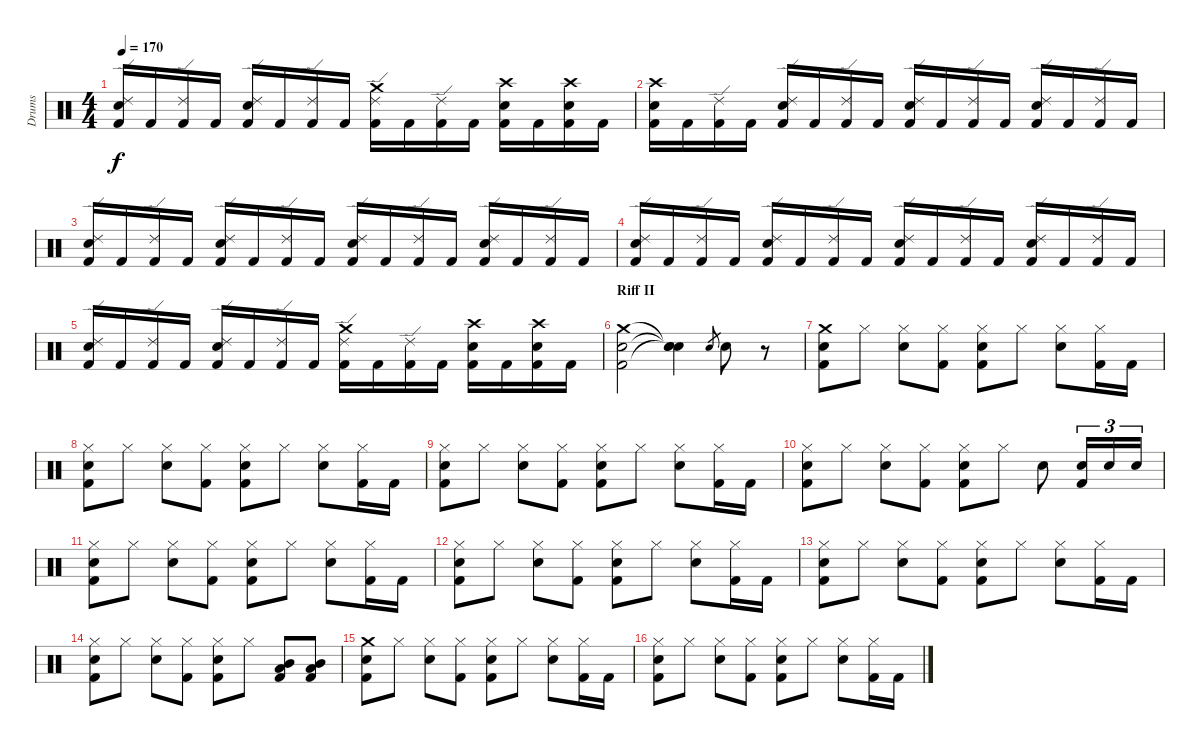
\track ("Drums" "Drums") {instrument percussion}
\staff {score}
\articulation defaults
\ts (4 4)
\tempo 170
\clef neutral
\ks c
("Kick (hit) 2" "Ride (edge) 2" "Snare (hit) 2").16{dy f} "Kick (hit) 2".16 ("Kick (hit) 2" "Ride (edge) 2").16 "Kick (hit) 2".16 ("Kick (hit) 2" "Ride (edge) 2" "Snare (hit) 2").16 "Kick (hit) 2".16 ("Kick (hit) 2" "Ride (edge) 2").16 "Kick (hit) 2".16 ("Kick (hit) 2" "Ride (edge) 2" "Crash medium (hit)").16 "Kick (hit) 2".16 ("Kick (hit) 2" "Ride (edge) 2").16 "Kick (hit) 2".16 ("Kick (hit) 2" "Snare (hit) 2" "Crash high (hit)").16 "Kick (hit) 2".16 ("Kick (hit) 2" "Snare (hit) 2" "Crash high (hit)").16 "Kick (hit) 2".16 |
("Kick (hit) 2" "Snare (hit) 2" "Crash high (hit)").16 "Kick (hit) 2".16 ("Kick (hit) 2" "Ride (edge) 2").16 "Kick (hit) 2".16 ("Kick (hit) 2" "Ride (edge) 2" "Snare (hit) 2").16 "Kick (hit) 2".16 ("Kick (hit) 2" "Ride (edge) 2").16 "Kick (hit) 2".16 ("Kick (hit) 2" "Ride (edge) 2" "Snare (hit) 2").16 "Kick (hit) 2".16 ("Kick (hit) 2" "Ride (edge) 2").16 "Kick (hit) 2".16 ("Kick (hit) 2" "Ride (edge) 2" "Snare (hit) 2").16 "Kick (hit) 2".16 ("Kick (hit) 2" "Ride (edge) 2").16 "Kick (hit) 2".16 |
("Kick (hit) 2" "Ride (edge) 2" "Snare (hit) 2").16 "Kick (hit) 2".16 ("Kick (hit) 2" "Ride (edge) 2").16 "Kick (hit) 2".16 ("Kick (hit) 2" "Ride (edge) 2" "Snare (hit) 2").16 "Kick (hit) 2".16 ("Kick (hit) 2" "Ride (edge) 2").16 "Kick (hit) 2".16 ("Kick (hit) 2" "Ride (edge) 2" "Snare (hit) 2").16 "Kick (hit) 2".16 ("Kick (hit) 2" "Ride (edge) 2").16 "Kick (hit) 2".16 ("Kick (hit) 2" "Ride (edge) 2" "Snare (hit) 2").16 "Kick (hit) 2".16 ("Kick (hit) 2" "Ride (edge) 2").16 "Kick (hit) 2".16 |
("Kick (hit) 2" "Ride (edge) 2" "Snare (hit) 2").16 "Kick (hit) 2".16 ("Kick (hit) 2" "Ride (edge) 2").16 "Kick (hit) 2".16 ("Kick (hit) 2" "Ride (edge) 2" "Snare (hit) 2").16 "Kick (hit) 2".16 ("Kick (hit) 2" "Ride (edge) 2").16 "Kick (hit) 2".16 ("Kick (hit) 2" "Ride (edge) 2" "Snare (hit) 2").16 "Kick (hit) 2".16 ("Kick (hit) 2" "Ride (edge) 2").16 "Kick (hit) 2".16 ("Kick (hit) 2" "Ride (edge) 2" "Snare (hit) 2").16 "Kick (hit) 2".16 ("Kick (hit) 2" "Ride (edge) 2").16 "Kick (hit) 2".16 |
("Kick (hit) 2" "Ride (edge) 2" "Snare (hit) 2").16 "Kick (hit) 2".16 ("Kick (hit) 2" "Ride (edge) 2").16 "Kick (hit) 2".16 ("Kick (hit) 2" "Ride (edge) 2" "Snare (hit) 2").16 "Kick (hit) 2".16 ("Kick (hit) 2" "Ride (edge) 2").16 "Kick (hit) 2".16 ("Kick (hit) 2" "Ride (edge) 2" "Crash medium (hit)").16 "Kick (hit) 2".16 ("Kick (hit) 2" "Ride (edge) 2").16 "Kick (hit) 2".16 ("Kick (hit) 2" "Snare (hit) 2" "Crash high (hit)").16 "Kick (hit) 2".16 ("Kick (hit) 2" "Snare (hit) 2" "Crash high (hit)").16 "Kick (hit) 2".16 |
\section ("" "Riff II")
("Kick (hit) 2" "Snare (hit) 2" "Crash medium (hit)").2 ("Snare (hit)"{t} "Snare (hit)"{t} "Snare (hit)"{t}).4 "Snare (hit) 2".8{gr} "Snare (hit) 2".8 r.8 |
("Kick (hit) 2" "Snare (hit) 2" "Crash medium (hit)").8 "Hi-Hat (closed)".8 ("Snare (hit) 2" "Hi-Hat (closed)").8 ("Kick (hit) 2" "Hi-Hat (closed)").8 ("Kick (hit) 2" "Snare (hit) 2" "Hi-Hat (closed)").8 "Hi-Hat (closed)".8 ("Snare (hit) 2" "Hi-Hat (closed)").8 ("Kick (hit) 2" "Hi-Hat (closed)").16 "Kick (hit) 2".16 |
("Kick (hit) 2" "Snare (hit) 2" "Hi-Hat (closed)").8 "Hi-Hat (closed)".8 ("Snare (hit) 2" "Hi-Hat (closed)").8 ("Kick (hit) 2" "Hi-Hat (closed)").8 ("Kick (hit) 2" "Snare (hit) 2" "Hi-Hat (closed)").8 "Hi-Hat (closed)".8 ("Snare (hit) 2" "Hi-Hat (closed)").8 ("Kick (hit) 2" "Hi-Hat (closed)").16 "Kick (hit) 2".16 |
("Kick (hit) 2" "Snare (hit) 2" "Hi-Hat (closed)").8 "Hi-Hat (closed)".8 ("Snare (hit) 2" "Hi-Hat (closed)").8 ("Kick (hit) 2" "Hi-Hat (closed)").8 ("Kick (hit) 2" "Snare (hit) 2" "Hi-Hat (closed)").8 "Hi-Hat (closed)".8 ("Snare (hit) 2" "Hi-Hat (closed)").8 ("Kick (hit) 2" "Hi-Hat (closed)").16 "Kick (hit) 2".16 |
("Kick (hit) 2" "Snare (hit) 2" "Hi-Hat (closed)").8 "Hi-Hat (closed)".8 ("Snare (hit) 2" "Hi-Hat (closed)").8 ("Kick (hit) 2" "Hi-Hat (closed)").8 ("Kick (hit) 2" "Snare (hit) 2" "Hi-Hat (closed)").8 "Hi-Hat (closed)".8 "Snare (hit) 2".8 ("Kick (hit) 2" "Snare (hit) 2").16{tu (3 2)} "Snare (hit) 2".16{tu (3 2)} "Snare (hit) 2".16{tu (3 2)} |
("Kick (hit) 2" "Snare (hit) 2" "Hi-Hat (closed)").8 "Hi-Hat (closed)".8 ("Snare (hit) 2" "Hi-Hat (closed)").8 ("Kick (hit) 2" "Hi-Hat (closed)").8 ("Kick (hit) 2" "Snare (hit) 2" "Hi-Hat (closed)").8 "Hi-Hat (closed)".8 ("Snare (hit) 2" "Hi-Hat (closed)").8 ("Kick (hit) 2" "Hi-Hat (closed)").16 "Kick (hit) 2".16 |
("Kick (hit) 2" "Snare (hit) 2" "Hi-Hat (closed)").8 "Hi-Hat (closed)".8 ("Snare (hit) 2" "Hi-Hat (closed)").8 ("Kick (hit) 2" "Hi-Hat (closed)").8 ("Kick (hit) 2" "Snare (hit) 2" "Hi-Hat (closed)").8 "Hi-Hat (closed)".8 ("Snare (hit) 2" "Hi-Hat (closed)").8 ("Kick (hit) 2" "Hi-Hat (closed)").16 "Kick (hit) 2".16 |
("Kick (hit) 2" "Snare (hit) 2" "Hi-Hat (closed)").8 "Hi-Hat (closed)".8 ("Snare (hit) 2" "Hi-Hat (closed)").8 ("Kick (hit) 2" "Hi-Hat (closed)").8 ("Kick (hit) 2" "Snare (hit) 2" "Hi-Hat (closed)").8 "Hi-Hat (closed)".8 ("Snare (hit) 2" "Hi-Hat (closed)").8 ("Kick (hit) 2" "Hi-Hat (closed)").16 "Kick (hit) 2".16 |
("Kick (hit) 2" "Snare (hit) 2" "Hi-Hat (closed)").8 "Hi-Hat (closed)".8 ("Snare (hit) 2" "Hi-Hat (closed)").8 ("Kick (hit) 2" "Hi-Hat (closed)").8 ("Kick (hit) 2" "Snare (hit) 2" "Hi-Hat (closed)").8 "Hi-Hat (closed)".8 ("Kick (hit) 2" "Low Tom (hit)" "Mid Tom (hit)").8 ("Kick (hit) 2" "Low Tom (hit)" "Mid Tom (hit)").8 |
("Kick (hit) 2" "Snare (hit) 2" "Crash medium (hit)").8 "Hi-Hat (closed)".8 ("Snare (hit) 2" "Hi-Hat (closed)").8 ("Kick (hit) 2" "Hi-Hat (closed)").8 ("Kick (hit) 2" "Snare (hit) 2" "Hi-Hat (closed)").8 "Hi-Hat (closed)".8 ("Snare (hit) 2" "Hi-Hat (closed)").8 ("Kick (hit) 2" "Hi-Hat (closed)").16 "Kick (hit) 2".16 |
("Kick (hit) 2" "Snare (hit) 2" "Hi-Hat (closed)").8 "Hi-Hat (closed)".8 ("Snare (hit) 2" "Hi-Hat (closed)").8 ("Kick (hit) 2" "Hi-Hat (closed)").8 ("Kick (hit) 2" "Snare (hit) 2" "Hi-Hat (closed)").8 "Hi-Hat (closed)".8 ("Snare (hit) 2" "Hi-Hat (closed)").8 ("Kick (hit) 2" "Hi-Hat (closed)").16 "Kick (hit) 2".16
